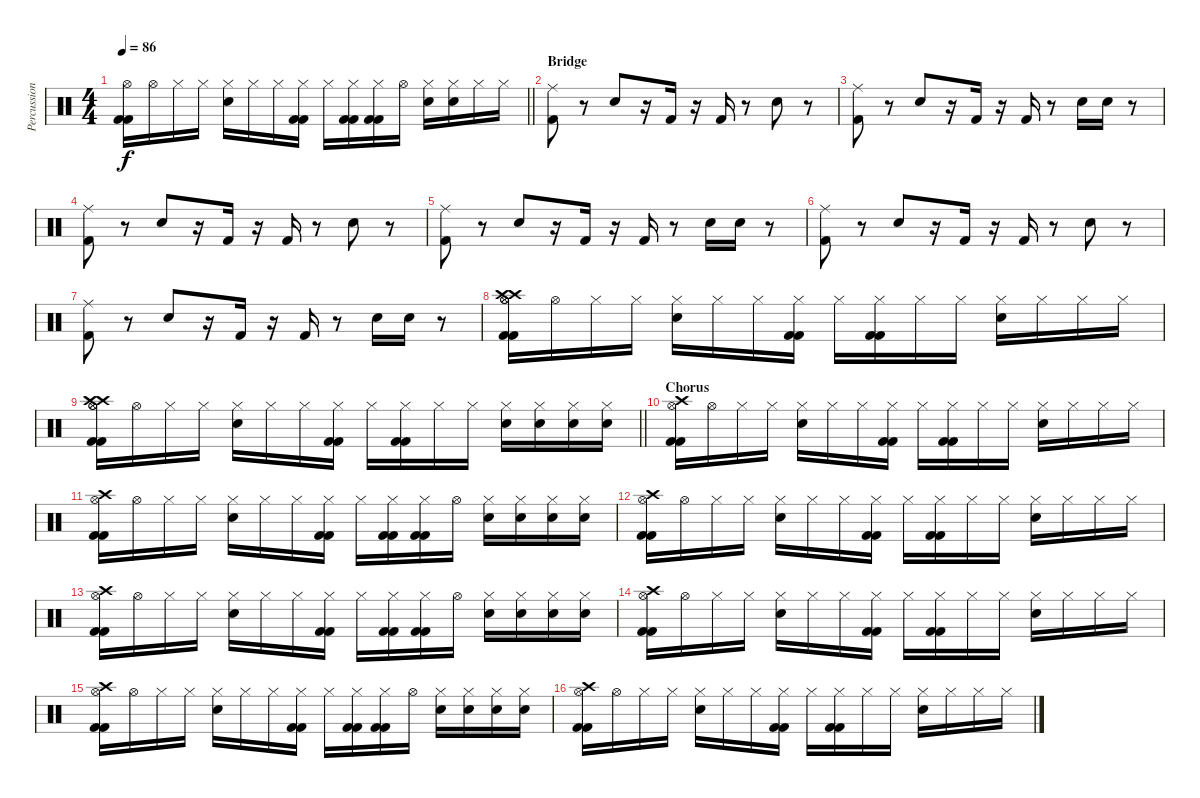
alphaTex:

\track ("Percussion" "Percussion") {instrument percussion}
\staff {score}
\articulation defaults
\ts (4 4)
\tempo 86
\clef neutral
\barLineRight lightlight
\ks c
("Hi-Hat (open)" "Kick (hit) 2" "Kick (hit) 2").16{dy f} "Hi-Hat (open)".16 "Hi-Hat (closed)".16 "Hi-Hat (closed)".16 ("Hi-Hat (closed)" "Electric Snare (hit)").16 "Hi-Hat (closed)".16 "Hi-Hat (closed)".16 ("Hi-Hat (closed)" "Kick (hit) 2" "Kick (hit) 2").16 "Hi-Hat (closed)".16 ("Hi-Hat (closed)" "Kick (hit) 2" "Kick (hit) 2").16 ("Hi-Hat (closed)" "Kick (hit) 2" "Kick (hit) 2").16 "Hi-Hat (open)".16 ("Hi-Hat (closed)" "Electric Snare (hit)").16 ("Hi-Hat (closed)" "Electric Snare (hit)").16 "Hi-Hat (closed)".16 "Hi-Hat (closed)".16 |
\section ("" "Bridge")
("Ride (middle)" "Kick (hit) 2").8 r.8 "Electric Snare (hit)".8 r.16 "Kick (hit) 2".16 r.16 "Kick (hit) 2".16 r.8 "Electric Snare (hit)".8 r.8 |
("Ride (middle)" "Kick (hit) 2").8 r.8 "Electric Snare (hit)".8 r.16 "Kick (hit) 2".16 r.16 "Kick (hit) 2".16 r.8 "Electric Snare (hit)".16 "Electric Snare (hit)".16 r.8 |
("Ride (middle)" "Kick (hit) 2").8 r.8 "Electric Snare (hit)".8 r.16 "Kick (hit) 2".16 r.16 "Kick (hit) 2".16 r.8 "Electric Snare (hit)".8 r.8 |
("Ride (middle)" "Kick (hit) 2").8 r.8 "Electric Snare (hit)".8 r.16 "Kick (hit) 2".16 r.16 "Kick (hit) 2".16 r.8 "Electric Snare (hit)".16 "Electric Snare (hit)".16 r.8 |
("Ride (middle)" "Kick (hit) 2").8 r.8 "Electric Snare (hit)".8 r.16 "Kick (hit) 2".16 r.16 "Kick (hit) 2".16 r.8 "Electric Snare (hit)".8 r.8 |
("Ride (middle)" "Kick (hit) 2").8 r.8 "Electric Snare (hit)".8 r.16 "Kick (hit) 2".16 r.16 "Kick (hit) 2".16 r.8 "Electric Snare (hit)".16 "Electric Snare (hit)".16 r.8 |
("Hi-Hat (open)" "Hi-Hat (open)" "Crash high (hit)" "Crash high (hit)" "Kick (hit) 2" "Kick (hit) 2").16 "Hi-Hat (open)".16 "Hi-Hat (closed)".16 "Hi-Hat (closed)".16 ("Hi-Hat (closed)" "Electric Snare (hit)").16 "Hi-Hat (closed)".16 "Hi-Hat (closed)".16 ("Hi-Hat (closed)" "Kick (hit) 2" "Kick (hit) 2").16 "Hi-Hat (closed)".16 ("Hi-Hat (closed)" "Kick (hit) 2" "Kick (hit) 2").16 "Hi-Hat (closed)".16 "Hi-Hat (closed)".16 ("Hi-Hat (closed)" "Electric Snare (hit)").16 "Hi-Hat (closed)".16 "Hi-Hat (closed)".16 "Hi-Hat (closed)".16 |
\barLineRight lightlight
("Hi-Hat (open)" "Hi-Hat (open)" "Crash high (hit)" "Crash high (hit)" "Kick (hit) 2" "Kick (hit) 2").16 "Hi-Hat (open)".16 "Hi-Hat (closed)".16 "Hi-Hat (closed)".16 ("Hi-Hat (closed)" "Electric Snare (hit)").16 "Hi-Hat (closed)".16 "Hi-Hat (closed)".16 ("Hi-Hat (closed)" "Kick (hit) 2" "Kick (hit) 2").16 "Hi-Hat (closed)".16 ("Hi-Hat (closed)" "Kick (hit) 2" "Kick (hit) 2").16 "Hi-Hat (closed)".16 "Hi-Hat (closed)".16 ("Hi-Hat (closed)" "Electric Snare (hit)").16 ("Hi-Hat (closed)" "Electric Snare (hit)").16 ("Hi-Hat (closed)" "Electric Snare (hit)").16 ("Hi-Hat (closed)" "Electric Snare (hit)").16 |
\section ("" "Chorus")
("Hi-Hat (open)" "Crash high (hit)" "Kick (hit) 2" "Kick (hit) 2").16 "Hi-Hat (open)".16 "Hi-Hat (closed)".16 "Hi-Hat (closed)".16 ("Hi-Hat (closed)" "Electric Snare (hit)").16 "Hi-Hat (closed)".16 "Hi-Hat (closed)".16 ("Hi-Hat (closed)" "Kick (hit) 2" "Kick (hit) 2").16 "Hi-Hat (closed)".16 ("Hi-Hat (closed)" "Kick (hit) 2" "Kick (hit) 2").16 "Hi-Hat (closed)".16 "Hi-Hat (closed)".16 ("Hi-Hat (closed)" "Electric Snare (hit)").16 "Hi-Hat (closed)".16 "Hi-Hat (closed)".16 "Hi-Hat (closed)".16 |
("Hi-Hat (open)" "Crash high (hit)" "Kick (hit) 2" "Kick (hit) 2").16 "Hi-Hat (open)".16 "Hi-Hat (closed)".16 "Hi-Hat (closed)".16 ("Hi-Hat (closed)" "Electric Snare (hit)").16 "Hi-Hat (closed)".16 "Hi-Hat (closed)".16 ("Hi-Hat (closed)" "Kick (hit) 2" "Kick (hit) 2").16 "Hi-Hat (closed)".16 ("Hi-Hat (closed)" "Kick (hit) 2" "Kick (hit) 2").16 ("Hi-Hat (closed)" "Kick (hit) 2" "Kick (hit) 2").16 "Hi-Hat (open)".16 ("Hi-Hat (closed)" "Electric Snare (hit)").16 ("Hi-Hat (closed)" "Electric Snare (hit)").16 ("Hi-Hat (closed)" "Electric Snare (hit)").16 ("Hi-Hat (closed)" "Electric Snare (hit)").16 |
("Hi-Hat (open)" "Crash high (hit)" "Kick (hit) 2" "Kick (hit) 2").16 "Hi-Hat (open)".16 "Hi-Hat (closed)".16 "Hi-Hat (closed)".16 ("Hi-Hat (closed)" "Electric Snare (hit)").16 "Hi-Hat (closed)".16 "Hi-Hat (closed)".16 ("Hi-Hat (closed)" "Kick (hit) 2" "Kick (hit) 2").16 "Hi-Hat (closed)".16 ("Hi-Hat (closed)" "Kick (hit) 2" "Kick (hit) 2").16 "Hi-Hat (closed)".16 "Hi-Hat (closed)".16 ("Hi-Hat (closed)" "Electric Snare (hit)").16 "Hi-Hat (closed)".16 "Hi-Hat (closed)".16 "Hi-Hat (closed)".16 |
("Hi-Hat (open)" "Crash high (hit)" "Kick (hit) 2" "Kick (hit) 2").16 "Hi-Hat (open)".16 "Hi-Hat (closed)".16 "Hi-Hat (closed)".16 ("Hi-Hat (closed)" "Electric Snare (hit)").16 "Hi-Hat (closed)".16 "Hi-Hat (closed)".16 ("Hi-Hat (closed)" "Kick (hit) 2" "Kick (hit) 2").16 "Hi-Hat (closed)".16 ("Hi-Hat (closed)" "Kick (hit) 2" "Kick (hit) 2").16 ("Hi-Hat (closed)" "Kick (hit) 2" "Kick (hit) 2").16 "Hi-Hat (open)".16 ("Hi-Hat (closed)" "Electric Snare (hit)").16 ("Hi-Hat (closed)" "Electric Snare (hit)").16 ("Hi-Hat (closed)" "Electric Snare (hit)").16 ("Hi-Hat (closed)" "Electric Snare (hit)").16 |
("Hi-Hat (open)" "Crash high (hit)" "Kick (hit) 2" "Kick (hit) 2").16 "Hi-Hat (open)".16 "Hi-Hat (closed)".16 "Hi-Hat (closed)".16 ("Hi-Hat (closed)" "Electric Snare (hit)").16 "Hi-Hat (closed)".16 "Hi-Hat (closed)".16 ("Hi-Hat (closed)" "Kick (hit) 2" "Kick (hit) 2").16 "Hi-Hat (closed)".16 ("Hi-Hat (closed)" "Kick (hit) 2" "Kick (hit) 2").16 "Hi-Hat (closed)".16 "Hi-Hat (closed)".16 ("Hi-Hat (closed)" "Electric Snare (hit)").16 "Hi-Hat (closed)".16 "Hi-Hat (closed)".16 "Hi-Hat (closed)".16 |
("Hi-Hat (open)" "Crash high (hit)" "Kick (hit) 2" "Kick (hit) 2").16 "Hi-Hat (open)".16 "Hi-Hat (closed)".16 "Hi-Hat (closed)".16 ("Hi-Hat (closed)" "Electric Snare (hit)").16 "Hi-Hat (closed)".16 "Hi-Hat (closed)".16 ("Hi-Hat (closed)" "Kick (hit) 2" "Kick (hit) 2").16 "Hi-Hat (closed)".16 ("Hi-Hat (closed)" "Kick (hit) 2" "Kick (hit) 2").16 ("Hi-Hat (closed)" "Kick (hit) 2" "Kick (hit) 2").16 "Hi-Hat (open)".16 ("Hi-Hat (closed)" "Electric Snare (hit)").16 ("Hi-Hat (closed)" "Electric Snare (hit)").16 ("Hi-Hat (closed)" "Electric Snare (hit)").16 ("Hi-Hat (closed)" "Electric Snare (hit)").16 |
("Hi-Hat (open)" "Crash high (hit)" "Kick (hit) 2" "Kick (hit) 2").16 "Hi-Hat (open)".16 "Hi-Hat (closed)".16 "Hi-Hat (closed)".16 ("Hi-Hat (closed)" "Electric Snare (hit)").16 "Hi-Hat (closed)".16 "Hi-Hat (closed)".16 ("Hi-Hat (closed)" "Kick (hit) 2" "Kick (hit) 2").16 "Hi-Hat (closed)".16 ("Hi-Hat (closed)" "Kick (hit) 2" "Kick (hit) 2").16 "Hi-Hat (closed)".16 "Hi-Hat (closed)".16 ("Hi-Hat (closed)" "Electric Snare (hit)").16 "Hi-Hat (closed)".16 "Hi-Hat (closed)".16 "Hi-Hat (closed)".16
